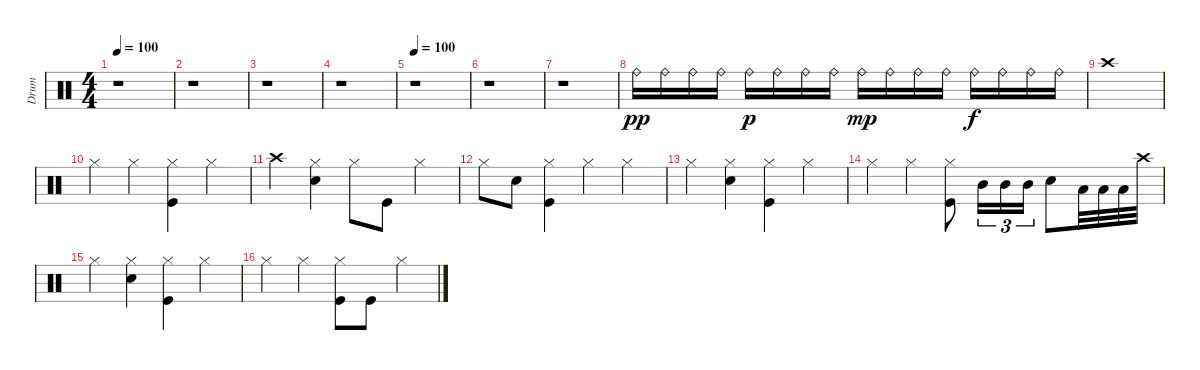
\track ("Drum" "Drum") {instrument percussion}
\staff {score}
\articulation defaults
\ts (4 4)
\tempo 100
\clef neutral
\ks c
r.1{dy pp} |
r.1 |
r.1 |
r.1 |
\tempo 100
r.1 |
r.1 |
r.1 |
"Ride (bell)".16 "Ride (bell)".16 "Ride (bell)".16 "Ride (bell)".16 "Ride (bell)".16{dy p} "Ride (bell)".16 "Ride (bell)".16 "Ride (bell)".16 "Ride (bell)".16{dy mp} "Ride (bell)".16 "Ride (bell)".16 "Ride (bell)".16 "Ride (bell)".16{dy f} "Ride (bell)".16 "Ride (bell)".16 "Ride (bell)".16 |
"Crash high (hit)".1 |
"Hi-Hat (closed)".4 "Hi-Hat (closed)".4 ("Hi-Hat (closed)" "Kick (hit)").4 "Hi-Hat (closed)".4 |
"Crash high (hit)".4 ("Hi-Hat (closed)" "Snare (hit) 2").4 "Hi-Hat (closed)".8 "Kick (hit)".8 "Hi-Hat (closed)".4 |
"Hi-Hat (closed)".8 "Snare (hit) 2".8 ("Hi-Hat (closed)" "Kick (hit)").4 "Hi-Hat (closed)".4 "Hi-Hat (closed)".4 |
"Hi-Hat (closed)".4 ("Hi-Hat (closed)" "Snare (hit) 2").4 ("Hi-Hat (closed)" "Kick (hit)").4 "Hi-Hat (closed)".4 |
"Hi-Hat (closed)".4 "Hi-Hat (closed)".4 ("Hi-Hat (closed)" "Kick (hit)").8 "Mid Tom (hit)".16{tu (3 2)} "Mid Tom (hit)".16{tu (3 2)} "Mid Tom (hit)".16{tu (3 2)} "Snare (hit) 2".8 "Low Tom (hit)".32 "Low Tom (hit)".32 "Low Tom (hit)".32 "Crash high (hit)".32 |
"Hi-Hat (closed)".4 ("Hi-Hat (closed)" "Snare (hit) 2").4 ("Hi-Hat (closed)" "Kick (hit)").4 "Hi-Hat (closed)".4 |
"Hi-Hat (closed)".4 "Hi-Hat (closed)".4 ("Hi-Hat (closed)" "Kick (hit)").8 "Kick (hit)".8 "Hi-Hat (closed)".4
